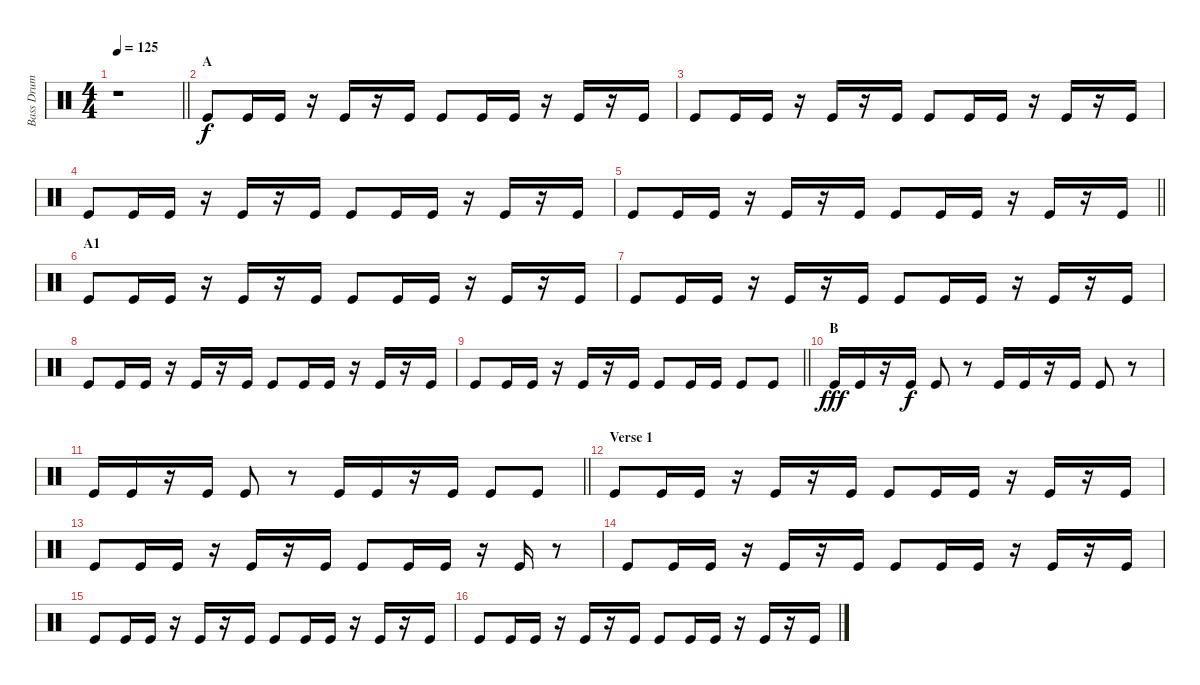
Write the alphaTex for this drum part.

\track ("Bass Drum Boost" "Bass Drum ") {instrument percussion}
\staff {score}
\articulation defaults
\ts (4 4)
\tempo 125
\clef neutral
\barLineRight lightlight
\ks c
r.1{dy f} |
\section ("" "A")
"Kick (hit)".8 "Kick (hit)".16 "Kick (hit)".16 r.16 "Kick (hit)".16 r.16 "Kick (hit)".16 "Kick (hit)".8 "Kick (hit)".16 "Kick (hit)".16 r.16 "Kick (hit)".16 r.16 "Kick (hit)".16 |
"Kick (hit)".8 "Kick (hit)".16 "Kick (hit)".16 r.16 "Kick (hit)".16 r.16 "Kick (hit)".16 "Kick (hit)".8 "Kick (hit)".16 "Kick (hit)".16 r.16 "Kick (hit)".16 r.16 "Kick (hit)".16 |
"Kick (hit)".8 "Kick (hit)".16 "Kick (hit)".16 r.16 "Kick (hit)".16 r.16 "Kick (hit)".16 "Kick (hit)".8 "Kick (hit)".16 "Kick (hit)".16 r.16 "Kick (hit)".16 r.16 "Kick (hit)".16 |
\barLineRight lightlight "Kick (hit)".8 "Kick (hit)".16 "Kick (hit)".16
r.16 "Kick (hit)".16 r.16 "Kick (hit)".16 "Kick (hit)".8 "Kick (hit)".16 "Kick (hit)".16 r.16 "Kick (hit)".16 r.16 "Kick (hit)".16 |
\section ("" "A1")
"Kick (hit)".8 "Kick (hit)".16 "Kick (hit)".16 r.16 "Kick (hit)".16 r.16 "Kick (hit)".16 "Kick (hit)".8 "Kick (hit)".16 "Kick (hit)".16 r.16 "Kick (hit)".16 r.16 "Kick (hit)".16 |
"Kick (hit)".8 "Kick (hit)".16 "Kick (hit)".16 r.16 "Kick (hit)".16 r.16 "Kick (hit)".16 "Kick (hit)".8 "Kick (hit)".16 "Kick (hit)".16 r.16 "Kick (hit)".16 r.16 "Kick (hit)".16 |
"Kick (hit)".8 "Kick (hit)".16 "Kick (hit)".16 r.16 "Kick (hit)".16 r.16 "Kick (hit)".16 "Kick (hit)".8 "Kick (hit)".16 "Kick (hit)".16 r.16 "Kick (hit)".16 r.16 "Kick (hit)".16 |
\barLineRight lightlight "Kick (hit)".8 "Kick (hit)".16 "Kick (hit)".16
r.16 "Kick (hit)".16 r.16 "Kick (hit)".16 "Kick (hit)".8 "Kick (hit)".16 "Kick (hit)".16 "Kick (hit)".8 "Kick (hit)".8 |
\section ("" "B")
"Kick (hit)".16{dy fff} "Kick (hit)".16 r.16 "Kick (hit)".16{dy f} "Kick (hit)".8 r.8 "Kick (hit)".16 "Kick (hit)".16 r.16 "Kick (hit)".16 "Kick (hit)".8 r.8 |
\barLineRight lightlight "Kick (hit)".16 "Kick (hit)".16
r.16 "Kick (hit)".16 "Kick (hit)".8 r.8 "Kick (hit)".16 "Kick (hit)".16 r.16 "Kick (hit)".16 "Kick (hit)".8 "Kick (hit)".8 |
\section ("" "Verse 1")
"Kick (hit)".8 "Kick (hit)".16 "Kick (hit)".16 r.16 "Kick (hit)".16 r.16 "Kick (hit)".16 "Kick (hit)".8 "Kick (hit)".16 "Kick (hit)".16 r.16 "Kick (hit)".16 r.16 "Kick (hit)".16 |
"Kick (hit)".8 "Kick (hit)".16 "Kick (hit)".16 r.16 "Kick (hit)".16 r.16 "Kick (hit)".16 "Kick (hit)".8 "Kick (hit)".16 "Kick (hit)".16 r.16 "Kick (hit)".16 r.8 |
"Kick (hit)".8 "Kick (hit)".16 "Kick (hit)".16 r.16 "Kick (hit)".16 r.16 "Kick (hit)".16 "Kick (hit)".8 "Kick (hit)".16 "Kick (hit)".16 r.16 "Kick (hit)".16 r.16 "Kick (hit)".16 |
"Kick (hit)".8 "Kick (hit)".16 "Kick (hit)".16 r.16 "Kick (hit)".16 r.16 "Kick (hit)".16 "Kick (hit)".8 "Kick (hit)".16 "Kick (hit)".16 r.16 "Kick (hit)".16 r.16 "Kick (hit)".16 |
"Kick (hit)".8 "Kick (hit)".16 "Kick (hit)".16 r.16 "Kick (hit)".16 r.16 "Kick (hit)".16 "Kick (hit)".8 "Kick (hit)".16 "Kick (hit)".16 r.16 "Kick (hit)".16 r.16 "Kick (hit)".16
